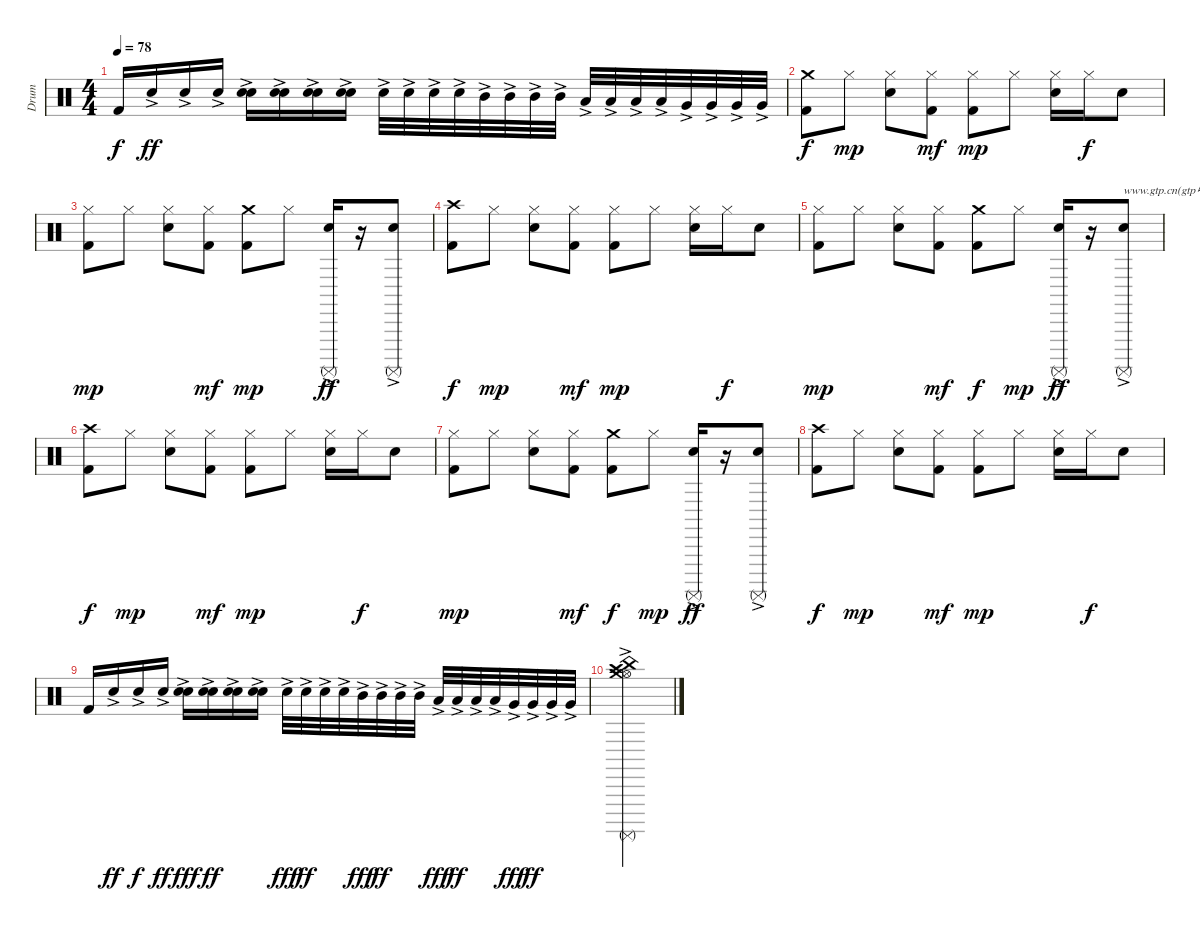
\track ("Drum" "Drum") {instrument percussion}
\staff {score}
\articulation defaults
\ts (4 4)
\tempo 78
\clef neutral
\ks c "Kick (hit) 2".16{dy f} "Electric Snare (hit)"{ac}.16{dy ff} "Electric Snare (hit)"{ac}.16 "Electric Snare (hit)"{ac}.16
("Snare (hit) 2"{ac} "Electric Snare (hit)"{ac}).16 ("Snare (hit) 2"{ac} "Electric Snare (hit)"{ac}).16 ("Snare (hit) 2"{ac} "Electric Snare (hit)"{ac}).16 ("Snare (hit) 2"{ac} "Electric Snare (hit)"{ac}).16 "Snare (hit) 2"{ac}.32 "Snare (hit) 2"{ac}.32 "Snare (hit) 2"{ac}.32 "Snare (hit) 2"{ac}.32 "Mid Tom (hit)"{ac}.32 "Mid Tom (hit)"{ac}.32 "Mid Tom (hit)"{ac}.32 "Mid Tom (hit)"{ac}.32 "Low Tom (hit)"{ac}.32 "Low Tom (hit)"{ac}.32 "Low Tom (hit)"{ac}.32 "Low Tom (hit)"{ac}.32 "Very Low Tom (hit)"{ac}.32 "Very Low Tom (hit)"{ac}.32 "Very Low Tom (hit)"{ac}.32 "Very Low Tom (hit)"{ac}.32 |
("Crash medium (hit)" "Kick (hit) 2").8{dy f} "Hi-Hat (closed)".8{dy mp} ("Hi-Hat (closed)" "Electric Snare (hit)").8 ("Hi-Hat (closed)" "Kick (hit) 2").8{dy mf} ("Hi-Hat (closed)" "Kick (hit) 2").8{dy mp} "Hi-Hat (closed)".8 ("Hi-Hat (closed)" "Electric Snare (hit)").16 "Hi-Hat (closed)".16{dy f} "Electric Snare (hit)".8 |
("Hi-Hat (closed)" "Kick (hit) 2").8{dy mp} "Hi-Hat (closed)".8 ("Hi-Hat (closed)" "Electric Snare (hit)").8 ("Hi-Hat (closed)" "Kick (hit) 2").8{dy mf} ("Crash medium (hit)" "Kick (hit) 2").8{dy mp} "Hi-Hat (closed)".8 ("Surdo (mute)"{ac} "Snare (hit) 2"{ac}).16{dy ff} r.16 ("Surdo (mute)"{ac} "Snare (hit) 2"{ac}).8 |
("Crash high (hit)" "Kick (hit) 2").8{dy f} "Hi-Hat (closed)".8{dy mp} ("Hi-Hat (closed)" "Electric Snare (hit)").8 ("Hi-Hat (closed)" "Kick (hit) 2").8{dy mf} ("Hi-Hat (closed)" "Kick (hit) 2").8{dy mp} "Hi-Hat (closed)".8 ("Hi-Hat (closed)" "Electric Snare (hit)").16 "Hi-Hat (closed)".16{dy f} "Electric Snare (hit)".8 |
("Hi-Hat (closed)" "Kick (hit) 2").8{dy mp} "Hi-Hat (closed)".8 ("Hi-Hat (closed)" "Electric Snare (hit)").8 ("Hi-Hat (closed)" "Kick (hit) 2").8{dy mf} ("Crash medium (hit)" "Kick (hit) 2").8{dy f} "Hi-Hat (closed)".8{dy mp} ("Surdo (mute)"{ac} "Snare (hit) 2"{ac}).16{dy ff} r.16 ("Surdo (mute)"{ac} "Snare (hit) 2"{ac}).8{txt "www.gtp.cn(gtp中文网)为您提供优秀的GTP!"} |
("Crash high (hit)" "Kick (hit) 2").8{dy f} "Hi-Hat (closed)".8{dy mp} ("Hi-Hat (closed)" "Electric Snare (hit)").8 ("Hi-Hat (closed)" "Kick (hit) 2").8{dy mf} ("Hi-Hat (closed)" "Kick (hit) 2").8{dy mp} "Hi-Hat (closed)".8 ("Hi-Hat (closed)" "Electric Snare (hit)").16 "Hi-Hat (closed)".16{dy f} "Electric Snare (hit)".8 |
("Hi-Hat (closed)" "Kick (hit) 2").8{dy mp} "Hi-Hat (closed)".8 ("Hi-Hat (closed)" "Electric Snare (hit)").8 ("Hi-Hat (closed)" "Kick (hit) 2").8{dy mf} ("Crash medium (hit)" "Kick (hit) 2").8{dy f} "Hi-Hat (closed)".8{dy mp} ("Surdo (mute)"{ac} "Snare (hit) 2"{ac}).16{dy ff} r.16 ("Surdo (mute)"{ac} "Snare (hit) 2"{ac}).8 |
("Crash high (hit)" "Kick (hit) 2").8{dy f} "Hi-Hat (closed)".8{dy mp} ("Hi-Hat (closed)" "Electric Snare (hit)").8 ("Hi-Hat (closed)" "Kick (hit) 2").8{dy mf} ("Hi-Hat (closed)" "Kick (hit) 2").8{dy mp} "Hi-Hat (closed)".8 ("Hi-Hat (closed)" "Electric Snare (hit)").16 "Hi-Hat (closed)".16{dy f} "Electric Snare (hit)".8 |
"Kick (hit) 2".16 "Electric Snare (hit)"{ac}.16{dy ff} "Electric Snare (hit)"{ac}.16{dy f} "Electric Snare (hit)"{ac}.16{dy ff} ("Snare (hit) 2"{ac} "Electric Snare (hit)"{ac}).16{dy fff} ("Snare (hit) 2"{ac} "Electric Snare (hit)"{ac}).16{dy ff} ("Snare (hit) 2"{ac} "Electric Snare (hit)"{ac}).16 ("Snare (hit) 2"{ac} "Electric Snare (hit)"{ac}).16 "Snare (hit) 2"{ac}.32{dy fff} "Snare (hit) 2"{ac}.32{dy ff} "Snare (hit) 2"{ac}.32 "Snare (hit) 2"{ac}.32 "Mid Tom (hit)"{ac}.32{dy fff} "Mid Tom (hit)"{ac}.32{dy ff} "Mid Tom (hit)"{ac}.32 "Mid Tom (hit)"{ac}.32 "Low Tom (hit)"{ac}.32{dy fff} "Low Tom (hit)"{ac}.32{dy ff} "Low Tom (hit)"{ac}.32 "Low Tom (hit)"{ac}.32 "Very Low Tom (hit)"{ac}.32{dy fff} "Very Low Tom (hit)"{ac}.32{dy ff} "Very Low Tom (hit)"{ac}.32 "Very Low Tom (hit)"{ac}.32 |
("Surdo (mute)"{ac} "Hi-Hat (open)"{ac} "Crash high (hit)"{ac} "China (hit)"{ac} "Crash medium (hit)"{ac}).2
